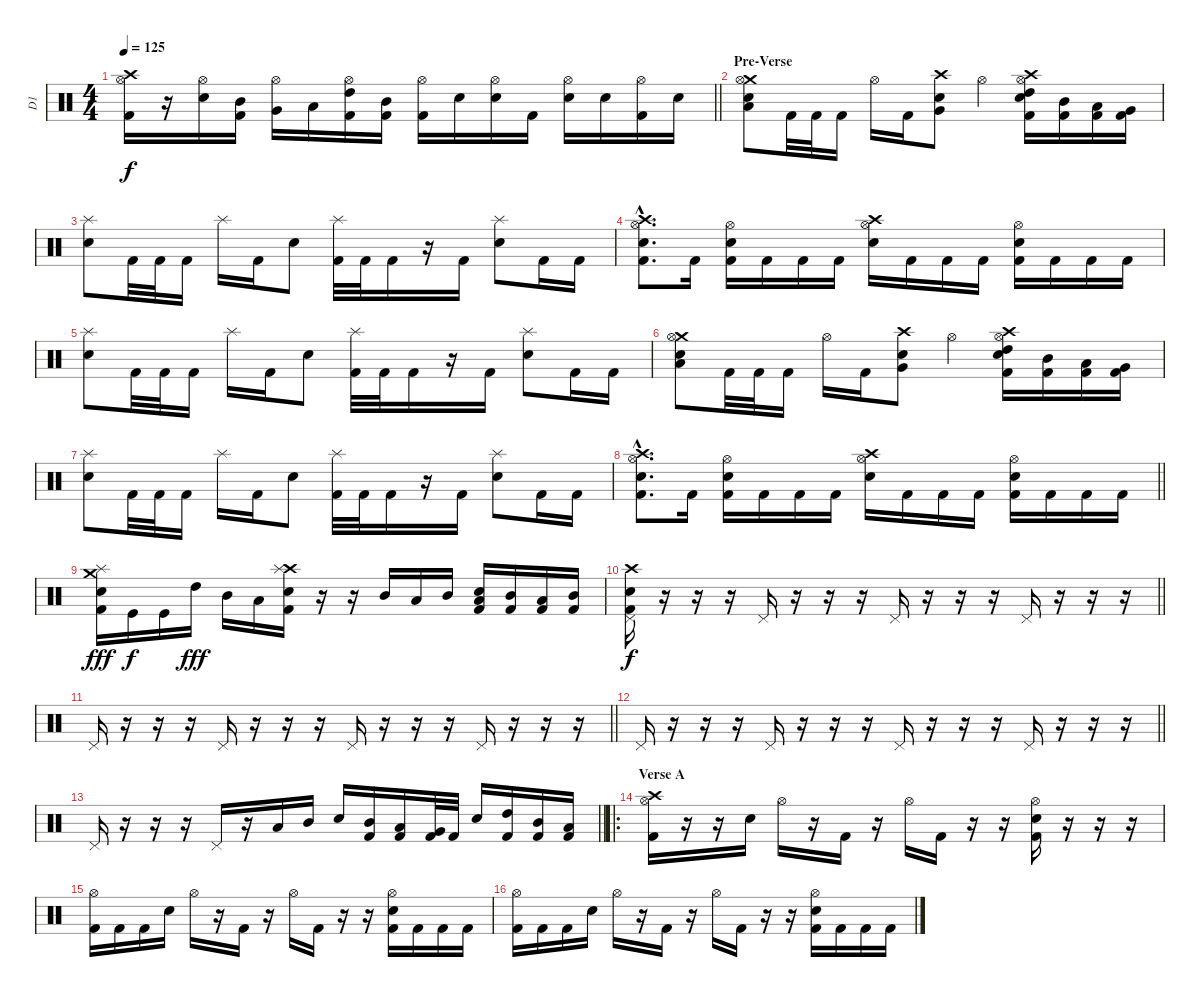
\track ("D1" "D1") {instrument percussion}
\staff {score}
\articulation defaults
\ts (4 4)
\tempo 125
\clef neutral
\barLineRight lightlight
\ks c
("Crash high (hit)" "Hi-Hat (open)" "Kick (hit) 2").16{dy f} r.16 ("Hi-Hat (open)" "Snare (hit) 2").16 ("Mid Tom (hit)" "Kick (hit) 2").16 ("Hi-Hat (open)" "Very Low Tom (hit)").16 "Low Tom (hit)".16 ("Hi-Hat (open)" "High Tom (hit)" "Kick (hit) 2").16 ("Mid Tom (hit)" "Kick (hit) 2").16 ("Hi-Hat (open)" "Kick (hit) 2").16 "Snare (hit) 2".16 ("Hi-Hat (open)" "Snare (hit) 2").16 "Kick (hit) 2".16 ("Hi-Hat (open)" "Snare (hit) 2").16 "Snare (hit) 2".16 ("Hi-Hat (open)" "Kick (hit) 2").16 "Snare (hit) 2".16 |
\section ("" "Pre-Verse")
("Crash medium (hit)" "Hi-Hat (open)" "Low Tom (hit)" "Snare (hit) 2").8 "Kick (hit) 2".32 "Kick (hit) 2".32 "Kick (hit) 2".16 "Hi-Hat (open)".16 "Kick (hit) 2".16 ("Crash high (hit)" "Very Low Tom (hit)" "Snare (hit) 2").8 "Hi-Hat (open)".4 ("Crash high (hit)" "Hi-Hat (open)" "High Tom (hit)" "Snare (hit) 2" "Kick (hit) 2").16 ("Mid Tom (hit)" "Kick (hit) 2").16 ("Low Tom (hit)" "Kick (hit) 2").16 ("Very Low Tom (hit)" "Kick (hit) 2").16 |
("Splash (hit)" "Snare (hit) 2").8 "Kick (hit) 2".32 "Kick (hit) 2".32 "Kick (hit) 2".16 "Splash (hit)".16 "Kick (hit) 2".16 "Snare (hit) 2".8 ("Splash (hit)" "Kick (hit) 2").32 "Kick (hit) 2".32 "Kick (hit) 2".16 r.16 "Kick (hit) 2".16 ("Splash (hit)" "Snare (hit) 2").8 "Kick (hit) 2".16 "Kick (hit) 2".16 |
("Crash high (hit)"{hac} "Hi-Hat (open)"{hac} "Snare (hit) 2"{hac} "Kick (hit) 2"{hac}).8{d} "Kick (hit) 2".16 ("Hi-Hat (open)" "Snare (hit) 2" "Kick (hit) 2").16 "Kick (hit) 2".16 "Kick (hit) 2".16 "Kick (hit) 2".16 ("Crash high (hit)" "Hi-Hat (open)" "Snare (hit) 2").16 "Kick (hit) 2".16 "Kick (hit) 2".16 "Kick (hit) 2".16 ("Hi-Hat (open)" "Snare (hit) 2" "Kick (hit) 2").16 "Kick (hit) 2".16 "Kick (hit) 2".16 "Kick (hit) 2".16 |
("Splash (hit)" "Snare (hit) 2").8 "Kick (hit) 2".32 "Kick (hit) 2".32 "Kick (hit) 2".16 "Splash (hit)".16 "Kick (hit) 2".16 "Snare (hit) 2".8 ("Splash (hit)" "Kick (hit) 2").32 "Kick (hit) 2".32 "Kick (hit) 2".16 r.16 "Kick (hit) 2".16 ("Splash (hit)" "Snare (hit) 2").8 "Kick (hit) 2".16 "Kick (hit) 2".16 |
("Crash medium (hit)" "Hi-Hat (open)" "Low Tom (hit)" "Snare (hit) 2").8 "Kick (hit) 2".32 "Kick (hit) 2".32 "Kick (hit) 2".16 "Hi-Hat (open)".16 "Kick (hit) 2".16 ("Crash high (hit)" "Very Low Tom (hit)" "Snare (hit) 2").8 "Hi-Hat (open)".4 ("Crash high (hit)" "Hi-Hat (open)" "High Tom (hit)" "Snare (hit) 2" "Kick (hit) 2").16 ("Mid Tom (hit)" "Kick (hit) 2").16 ("Low Tom (hit)" "Kick (hit) 2").16 ("Very Low Tom (hit)" "Kick (hit) 2").16 |
("Splash (hit)" "Snare (hit) 2").8 "Kick (hit) 2".32 "Kick (hit) 2".32 "Kick (hit) 2".16 "Splash (hit)".16 "Kick (hit) 2".16 "Snare (hit) 2".8 ("Splash (hit)" "Kick (hit) 2").32 "Kick (hit) 2".32 "Kick (hit) 2".16 r.16 "Kick (hit) 2".16 ("Splash (hit)" "Snare (hit) 2").8 "Kick (hit) 2".16 "Kick (hit) 2".16 |
\barLineRight lightlight
("Crash high (hit)"{hac} "Hi-Hat (open)"{hac} "Snare (hit) 2"{hac} "Kick (hit) 2"{hac}).8{d} "Kick (hit) 2".16 ("Hi-Hat (open)" "Snare (hit) 2" "Kick (hit) 2").16 "Kick (hit) 2".16 "Kick (hit) 2".16 "Kick (hit) 2".16 ("Crash high (hit)" "Hi-Hat (open)" "Snare (hit) 2").16 "Kick (hit) 2".16 "Kick (hit) 2".16 "Kick (hit) 2".16 ("Hi-Hat (open)" "Snare (hit) 2" "Kick (hit) 2").16 "Kick (hit) 2".16 "Kick (hit) 2".16 "Kick (hit) 2".16 |
\section ("" "")
("Crash medium (hit)" "Splash (hit)" "Snare (hit) 2" "Kick (hit) 2").16{dy fff} "Kick (hit)".16{dy f} "Kick (hit)".16 "High Tom (hit)".16{dy fff} "Mid Tom (hit)".16 "Low Tom (hit)".16 ("Crash high (hit)" "Splash (hit)" "Snare (hit) 2" "Kick (hit) 2").16 r.16 r.16 "Mid Tom (hit)".16 "Low Tom (hit)".16 "Mid Tom (hit)".16 ("Low Tom (hit)" "Snare (hit) 2" "Kick (hit) 2").16 ("Mid Tom (hit)" "Kick (hit) 2").16 ("Low Tom (hit)" "Kick (hit) 2").16 ("Mid Tom (hit)" "Kick (hit) 2").16 |
\barLineRight lightlight
("Crash high (hit)" "Pedal Hi-Hat (hit)" "Snare (hit) 2" "Kick (hit) 2").16{dy f} r.16 r.16 r.16 "Pedal Hi-Hat (hit)".16 r.16 r.16 r.16 "Pedal Hi-Hat (hit)".16 r.16 r.16 r.16 "Pedal Hi-Hat (hit)".16 r.16 r.16 r.16 |
\barLineRight lightlight "Pedal Hi-Hat (hit)".16
r.16 r.16 r.16 "Pedal Hi-Hat (hit)".16 r.16 r.16 r.16 "Pedal Hi-Hat (hit)".16 r.16 r.16 r.16 "Pedal Hi-Hat (hit)".16 r.16 r.16 r.16 |
\barLineRight lightlight "Pedal Hi-Hat (hit)".16
r.16 r.16 r.16 "Pedal Hi-Hat (hit)".16 r.16 r.16 r.16 "Pedal Hi-Hat (hit)".16 r.16 r.16 r.16 "Pedal Hi-Hat (hit)".16 r.16 r.16 r.16 |
\barLineRight lightlight "Pedal Hi-Hat (hit)".16
r.16 r.16 r.16 "Pedal Hi-Hat (hit)".16 r.16 "Low Tom (hit)".16 "Mid Tom (hit)".16 "Snare (hit) 2".16 ("Mid Tom (hit)" "Kick (hit) 2").16 ("Low Tom (hit)" "Kick (hit) 2").16 ("Very Low Tom (hit)" "Kick (hit) 2").32 "Kick (hit) 2".32 "Snare (hit) 2".16 ("High Tom (hit)" "Kick (hit) 2").16 ("Mid Tom (hit)" "Kick (hit) 2").16 ("Low Tom (hit)" "Kick (hit) 2").16 |
\ro
\section ("" "Verse A")
("Crash high (hit)" "Hi-Hat (open)" "Kick (hit) 2").16 r.16 r.16 "Snare (hit) 2".16 "Hi-Hat (open)".16 r.16 "Kick (hit) 2".16 r.16 "Hi-Hat (open)".16 "Kick (hit) 2".16 r.16 r.16 ("Hi-Hat (open)" "Snare (hit) 2" "Kick (hit) 2").16 r.16 r.16 r.16 |
("Hi-Hat (open)" "Kick (hit) 2").16 "Kick (hit) 2".16 "Kick (hit) 2".16 "Snare (hit) 2".16 "Hi-Hat (open)".16 r.16 "Kick (hit) 2".16 r.16 "Hi-Hat (open)".16 "Kick (hit) 2".16 r.16 r.16 ("Hi-Hat (open)" "Snare (hit) 2" "Kick (hit) 2").16 "Kick (hit) 2".16 "Kick (hit) 2".16 "Kick (hit) 2".16 |
("Hi-Hat (open)" "Kick (hit) 2").16 "Kick (hit) 2".16 "Kick (hit) 2".16 "Snare (hit) 2".16 "Hi-Hat (open)".16 r.16 "Kick (hit) 2".16 r.16 "Hi-Hat (open)".16 "Kick (hit) 2".16 r.16 r.16 ("Hi-Hat (open)" "Snare (hit) 2" "Kick (hit) 2").16 "Kick (hit) 2".16 "Kick (hit) 2".16 "Kick (hit) 2".16
